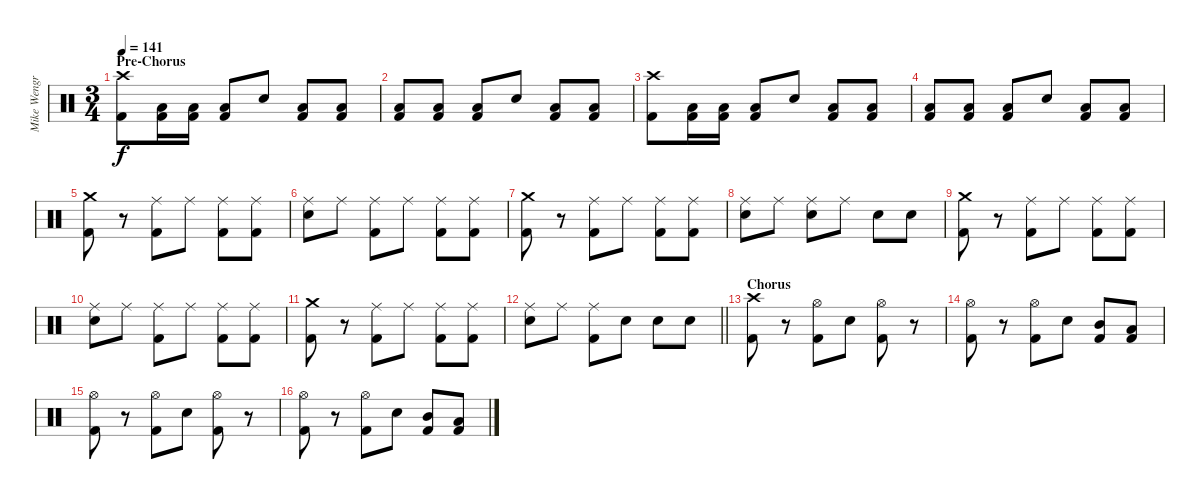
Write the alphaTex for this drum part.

\track ("Mike Wengren (Drums)" "Mike Wengr") {instrument percussion}
\staff {score}
\articulation defaults
\ts (3 4)
\section ("" "Pre-Chorus")
\tempo 141
\clef neutral
\ks c
("Crash high (hit)" "Kick (hit) 2").8{dy f} ("Low Tom (hit)" "Kick (hit) 2").16 ("Low Tom (hit)" "Kick (hit) 2").16 ("Low Tom (hit)" "Kick (hit) 2").8 "Electric Snare (hit)".8 ("Low Tom (hit)" "Kick (hit) 2").8 ("Low Tom (hit)" "Kick (hit) 2").8 |
("Low Tom (hit)" "Kick (hit) 2").8 ("Low Tom (hit)" "Kick (hit) 2").8 ("Low Tom (hit)" "Kick (hit) 2").8 "Electric Snare (hit)".8 ("Low Tom (hit)" "Kick (hit) 2").8 ("Low Tom (hit)" "Kick (hit) 2").8 |
("Crash high (hit)" "Kick (hit) 2").8 ("Low Tom (hit)" "Kick (hit) 2").16 ("Low Tom (hit)" "Kick (hit) 2").16 ("Low Tom (hit)" "Kick (hit) 2").8 "Electric Snare (hit)".8 ("Low Tom (hit)" "Kick (hit) 2").8 ("Low Tom (hit)" "Kick (hit) 2").8 |
("Low Tom (hit)" "Kick (hit) 2").8 ("Low Tom (hit)" "Kick (hit) 2").8 ("Low Tom (hit)" "Kick (hit) 2").8 "Electric Snare (hit)".8 ("Low Tom (hit)" "Kick (hit) 2").8 ("Low Tom (hit)" "Kick (hit) 2").8 |
("Crash medium (hit)" "Kick (hit) 2").8 r.8 ("Ride (middle)" "Kick (hit) 2").8 "Ride (middle)".8 ("Ride (middle)" "Kick (hit) 2").8 ("Ride (middle)" "Kick (hit) 2").8 |
("Ride (middle)" "Electric Snare (hit)").8 "Ride (middle)".8 ("Ride (middle)" "Kick (hit) 2").8 "Ride (middle)".8 ("Ride (middle)" "Kick (hit) 2").8 ("Ride (middle)" "Kick (hit) 2").8 |
("Crash medium (hit)" "Kick (hit) 2").8 r.8 ("Ride (middle)" "Kick (hit) 2").8 "Ride (middle)".8 ("Ride (middle)" "Kick (hit) 2").8 ("Ride (middle)" "Kick (hit) 2").8 |
("Ride (middle)" "Electric Snare (hit)").8 "Ride (middle)".8 ("Ride (middle)" "Electric Snare (hit)").8 "Ride (middle)".8 "Electric Snare (hit)".8 "Electric Snare (hit)".8 |
("Crash medium (hit)" "Kick (hit) 2").8 r.8 ("Ride (middle)" "Kick (hit) 2").8 "Ride (middle)".8 ("Ride (middle)" "Kick (hit) 2").8 ("Ride (middle)" "Kick (hit) 2").8 |
("Ride (middle)" "Electric Snare (hit)").8 "Ride (middle)".8 ("Ride (middle)" "Kick (hit) 2").8 "Ride (middle)".8 ("Ride (middle)" "Kick (hit) 2").8 ("Ride (middle)" "Kick (hit) 2").8 |
("Crash medium (hit)" "Kick (hit) 2").8 r.8 ("Ride (middle)" "Kick (hit) 2").8 "Ride (middle)".8 ("Ride (middle)" "Kick (hit) 2").8 ("Ride (middle)" "Kick (hit) 2").8 |
\barLineRight lightlight
("Ride (middle)" "Electric Snare (hit)").8 "Ride (middle)".8 ("Ride (middle)" "Kick (hit) 2").8 "Electric Snare (hit)".8 "Electric Snare (hit)".8 "Electric Snare (hit)".8 |
\section ("" "Chorus")
("Crash high (hit)" "Kick (hit) 2").8 r.8 ("Hi-Hat (open)" "Kick (hit) 2").8 "Electric Snare (hit)".8 ("Hi-Hat (open)" "Kick (hit) 2").8 r.8 |
("Hi-Hat (open)" "Kick (hit) 2").8 r.8 ("Hi-Hat (open)" "Kick (hit) 2").8 "Electric Snare (hit)".8 ("Mid Tom (hit)" "Kick (hit) 2").8 ("Low Tom (hit)" "Kick (hit) 2").8 |
("Hi-Hat (open)" "Kick (hit) 2").8 r.8 ("Hi-Hat (open)" "Kick (hit) 2").8 "Electric Snare (hit)".8 ("Hi-Hat (open)" "Kick (hit) 2").8 r.8 |
("Hi-Hat (open)" "Kick (hit) 2").8 r.8 ("Hi-Hat (open)" "Kick (hit) 2").8 "Electric Snare (hit)".8 ("Mid Tom (hit)" "Kick (hit) 2").8 ("Low Tom (hit)" "Kick (hit) 2").8
